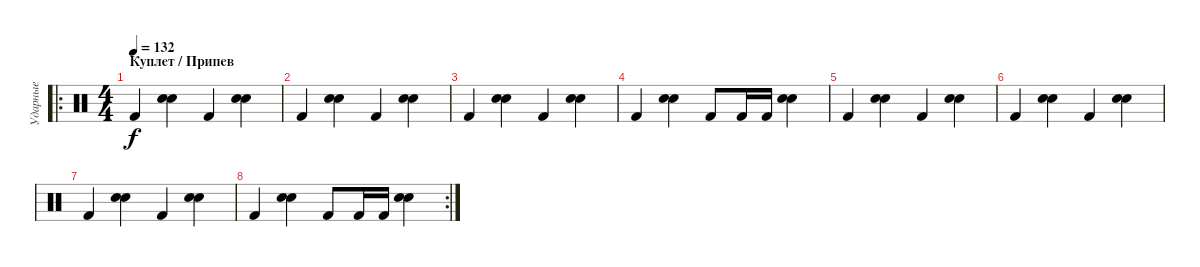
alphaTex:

\track ("Ударные" "Ударные") {instrument percussion}
\staff {score}
\articulation defaults
\ro
\ts (4 4)
\section ("" "Куплет / Припев")
\tempo 132
\clef neutral
\ks c "Kick (hit) 2".4{dy f}
("Electric Snare (hit)" "Snare (hit) 2").4 "Kick (hit) 2".4 ("Electric Snare (hit)" "Snare (hit) 2").4 |
"Kick (hit) 2".4 ("Electric Snare (hit)" "Snare (hit) 2").4 "Kick (hit) 2".4 ("Electric Snare (hit)" "Snare (hit) 2").4 |
"Kick (hit) 2".4 ("Electric Snare (hit)" "Snare (hit) 2").4 "Kick (hit) 2".4 ("Electric Snare (hit)" "Snare (hit) 2").4 |
"Kick (hit) 2".4 ("Electric Snare (hit)" "Snare (hit) 2").4 "Kick (hit) 2".8 "Kick (hit) 2".16 "Kick (hit) 2".16 ("Electric Snare (hit)" "Snare (hit) 2").4 |
"Kick (hit) 2".4 ("Electric Snare (hit)" "Snare (hit) 2").4 "Kick (hit) 2".4 ("Electric Snare (hit)" "Snare (hit) 2").4 |
"Kick (hit) 2".4 ("Electric Snare (hit)" "Snare (hit) 2").4 "Kick (hit) 2".4 ("Electric Snare (hit)" "Snare (hit) 2").4 |
"Kick (hit) 2".4 ("Electric Snare (hit)" "Snare (hit) 2").4 "Kick (hit) 2".4 ("Electric Snare (hit)" "Snare (hit) 2").4 |
\rc 2 "Kick (hit) 2".4
("Electric Snare (hit)" "Snare (hit) 2").4 "Kick (hit) 2".8 "Kick (hit) 2".16 "Kick (hit) 2".16 ("Electric Snare (hit)" "Snare (hit) 2").4
